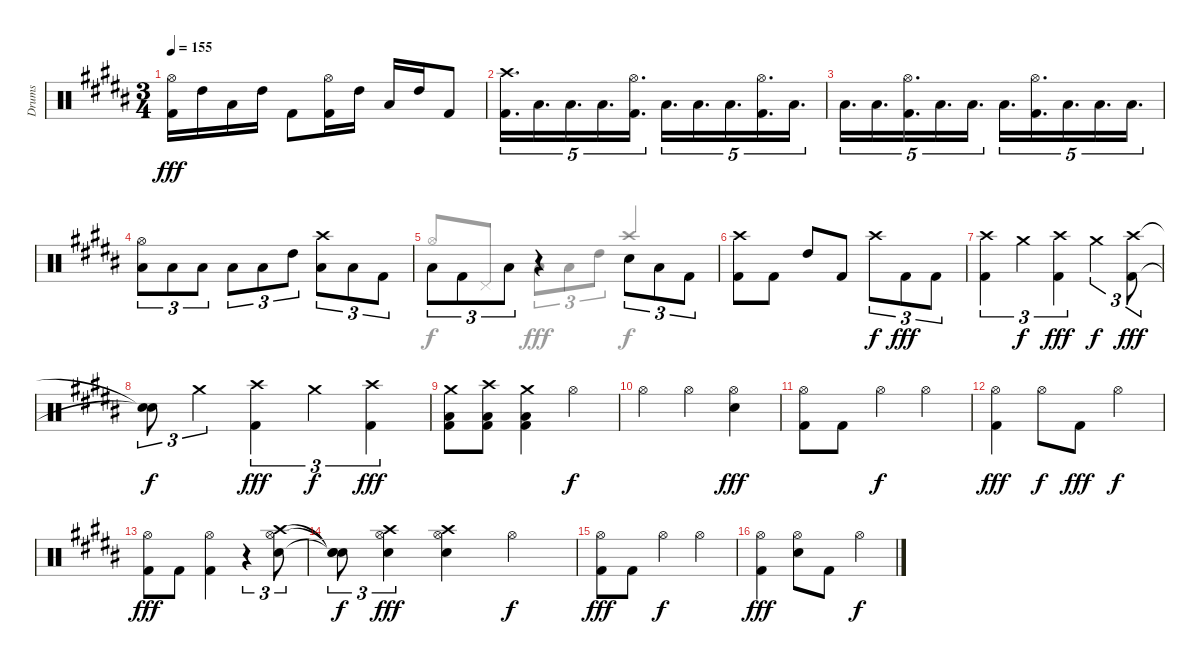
\track ("Drums" "Drums") {instrument percussion}
\staff {score}
\articulation defaults
\voice
\ts (3 4)
\tempo 155
\clef neutral
\ks b
("Hi-Hat (open)" "Kick (hit) 2").16{dy fff} "High Tom (hit)".16 "Low Tom (hit)".16 "High Tom (hit)".16 "Kick (hit) 2".8 ("Hi-Hat (open)" "Kick (hit) 2").16 "High Tom (hit)".16 "Low Tom (hit)".16 "High Tom (hit)".16 "Kick (hit) 2".8 |
("Crash high (hit)" "Kick (hit) 2").16{d tu (5 4)} "Low Tom (hit)".16{d tu (5 4)} "Low Tom (hit)".16{d tu (5 4)} "Low Tom (hit)".16{d tu (5 4)} ("Hi-Hat (open)" "Kick (hit) 2").16{d tu (5 4)} "Low Tom (hit)".16{d tu (5 4)} "Low Tom (hit)".16{d tu (5 4)} "Low Tom (hit)".16{d tu (5 4)} ("Hi-Hat (open)" "Kick (hit) 2").16{d tu (5 4)} "Low Tom (hit)".16{d tu (5 4)} |
"Low Tom (hit)".16{d tu (5 4)} "Low Tom (hit)".16{d tu (5 4)} ("Hi-Hat (open)" "Kick (hit) 2").16{d tu (5 4)} "Low Tom (hit)".16{d tu (5 4)} "Low Tom (hit)".16{d tu (5 4)} "Low Tom (hit)".16{d tu (5 4)} ("Hi-Hat (open)" "Kick (hit) 2").16{d tu (5 4)} "Low Tom (hit)".16{d tu (5 4)} "Low Tom (hit)".16{d tu (5 4)} "Low Tom (hit)".16{d tu (5 4)} |
("Hi-Hat (open)" "Low Tom (hit)").8{tu (3 2)} "Low Tom (hit)".8{tu (3 2)} "Low Tom (hit)".8{tu (3 2)} "Low Tom (hit)".8{tu (3 2)} "Low Tom (hit)".8{tu (3 2)} "High Tom (hit)".8{tu (3 2)} ("Crash high (hit)" "Low Tom (hit)").8{tu (3 2)} "Low Tom (hit)".8{tu (3 2)} "Kick (hit) 2".8{tu (3 2)} |
"Low Tom (hit)".8{tu (3 2) beam Down} "Kick (hit) 2".8{tu (3 2) beam Down} "Low Tom (hit)".8{tu (3 2) beam Down} r.4 "Snare (hit) 2".8{tu (3 2) beam Down} "Low Tom (hit)".8{tu (3 2) beam Down} "Kick (hit) 2".8{tu (3 2) beam Down} |
("Crash high (hit)" "Kick (hit) 2").8 "Kick (hit) 2".8 "High Tom (hit)".8 "Kick (hit) 2".8 "Crash high (hit)".8{tu (3 2) dy f} "Kick (hit) 2".8{tu (3 2) dy fff} "Kick (hit) 2".8{tu (3 2)} |
("Crash high (hit)" "Kick (hit) 2").4{tu (3 2)} "Crash medium (hit)".4{tu (3 2) dy f} ("Crash high (hit)" "Kick (hit) 2").4{tu (3 2) dy fff} "Crash medium (hit)".4{tu (3 2) dy f} ("Crash high (hit)" "Kick (hit) 2").8{tu (3 2) dy fff} |
("Snare (hit)"{t} "Snare (hit)"{t}).8{tu (3 2) dy f} "Crash medium (hit)".4{tu (3 2)} ("Crash high (hit)" "Kick (hit) 2").4{tu (3 2) dy fff} "Crash medium (hit)".4{tu (3 2) dy f} ("Crash high (hit)" "Kick (hit) 2").4{tu (3 2) dy fff} |
("Crash medium (hit)" "Low Tom (hit)" "Kick (hit) 2").8 ("Crash high (hit)" "Low Tom (hit)" "Kick (hit) 2").8 ("Crash medium (hit)" "Low Tom (hit)" "Kick (hit) 2").4 "Hi-Hat (open)".4{dy f} |
"Hi-Hat (open)".4 "Hi-Hat (open)".4 ("Hi-Hat (open)" "Snare (hit) 2").4{dy fff} |
("Hi-Hat (open)" "Kick (hit) 2").8 "Kick (hit) 2".8 "Hi-Hat (open)".4{dy f} "Hi-Hat (open)".4 |
("Hi-Hat (open)" "Kick (hit) 2").4{dy fff} "Hi-Hat (open)".8{dy f} "Kick (hit) 2".8{dy fff} "Hi-Hat (open)".4{dy f} |
("Hi-Hat (open)" "Kick (hit) 2").8{dy fff} "Kick (hit) 2".8 ("Hi-Hat (open)" "Kick (hit) 2").4 r.4{tu (3 2)} ("Hi-Hat (open)" "Crash high (hit)" "Snare (hit) 2").8{tu (3 2)} |
("Snare (hit)"{t} "Snare (hit)"{t} "Snare (hit)"{t}).8{tu (3 2) dy f} ("Hi-Hat (open)" "Crash high (hit)" "Snare (hit) 2").4{tu (3 2) dy fff} ("Hi-Hat (open)" "Crash high (hit)" "Snare (hit) 2").4 "Hi-Hat (open)".4{dy f} |
("Hi-Hat (open)" "Kick (hit) 2").8{dy fff} "Kick (hit) 2".8 "Hi-Hat (open)".4{dy f} "Hi-Hat (open)".4 |
("Hi-Hat (open)" "Kick (hit) 2").4{dy fff} ("Hi-Hat (open)" "Snare (hit) 2").8 "Kick (hit) 2".8 "Hi-Hat (open)".4{dy f}
\voice
\clef neutral
\ottava regular
\simile none
\ks b
|
|
|
|
"Hi-Hat (open)".8{dy f beam Up} "Pedal Hi-Hat (hit)".8{beam Up} "Low Tom (hit)".8{tu (3 2) dy fff} "Low Tom (hit)".8{tu (3 2)} "High Tom (hit)".8{tu (3 2)} "Crash high (hit)".4{dy f beam Up} |
|
|
|
|
|
|
|
|
|
|
